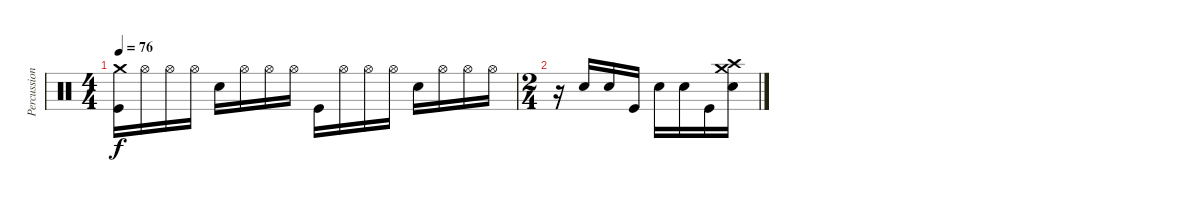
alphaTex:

\track ("Percussion" "Percussion") {instrument percussion}
\staff {score}
\articulation defaults
\ts (4 4)
\tempo 76
\clef neutral
\ks c
("Crash medium (hit)" "Kick (hit)").16{dy f} "Hi-Hat (open)".16 "Hi-Hat (open)".16 "Hi-Hat (open)".16 "Snare (hit) 2".16 "Hi-Hat (open)".16 "Hi-Hat (open)".16 "Hi-Hat (open)".16 "Kick (hit)".16 "Hi-Hat (open)".16 "Hi-Hat (open)".16 "Hi-Hat (open)".16 "Snare (hit) 2".16 "Hi-Hat (open)".16 "Hi-Hat (open)".16 "Hi-Hat (open)".16 |
\ts (2 4)
r.16 "Snare (hit) 2".16 "Snare (hit) 2".16 "Kick (hit)".16 "Snare (hit) 2".16 "Snare (hit) 2".16 "Kick (hit)".16 ("Crash high (hit)" "Crash medium (hit)" "Snare (hit) 2").16
